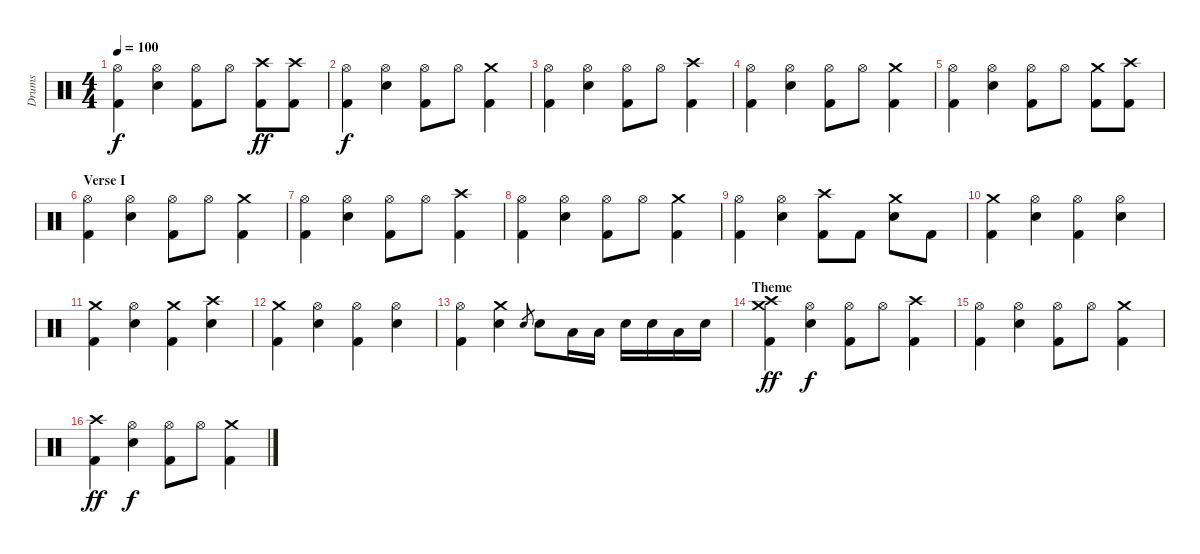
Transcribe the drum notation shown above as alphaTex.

\track ("Drums" "Drums") {instrument percussion}
\staff {score}
\articulation defaults
\ts (4 4)
\tempo 100
\clef neutral
\ks c
("Hi-Hat (open)" "Kick (hit) 2").4{dy f} ("Hi-Hat (open)" "Snare (hit) 2").4 ("Hi-Hat (open)" "Kick (hit) 2").8 "Hi-Hat (open)".8 ("Crash high (hit)" "Kick (hit) 2").8{dy ff} ("Crash high (hit)" "Kick (hit) 2").8 |
("Hi-Hat (open)" "Kick (hit) 2").4{dy f} ("Hi-Hat (open)" "Snare (hit) 2").4 ("Hi-Hat (open)" "Kick (hit) 2").8 "Hi-Hat (open)".8 ("Crash medium (hit)" "Kick (hit) 2").4 |
("Hi-Hat (open)" "Kick (hit) 2").4 ("Hi-Hat (open)" "Snare (hit) 2").4 ("Hi-Hat (open)" "Kick (hit) 2").8 "Hi-Hat (open)".8 ("Crash high (hit)" "Kick (hit) 2").4 |
("Hi-Hat (open)" "Kick (hit) 2").4 ("Hi-Hat (open)" "Snare (hit) 2").4 ("Hi-Hat (open)" "Kick (hit) 2").8 "Hi-Hat (open)".8 ("Crash medium (hit)" "Kick (hit) 2").4 |
("Hi-Hat (open)" "Kick (hit) 2").4 ("Hi-Hat (open)" "Snare (hit) 2").4 ("Hi-Hat (open)" "Kick (hit) 2").8 "Hi-Hat (open)".8 ("Crash medium (hit)" "Kick (hit) 2").8 ("Crash high (hit)" "Kick (hit) 2").8 |
\section ("" "Verse I")
("Hi-Hat (open)" "Kick (hit) 2").4 ("Hi-Hat (open)" "Snare (hit) 2").4 ("Hi-Hat (open)" "Kick (hit) 2").8 "Hi-Hat (open)".8 ("Crash medium (hit)" "Kick (hit) 2").4 |
("Hi-Hat (open)" "Kick (hit) 2").4 ("Hi-Hat (open)" "Snare (hit) 2").4 ("Hi-Hat (open)" "Kick (hit) 2").8 "Hi-Hat (open)".8 ("Crash high (hit)" "Kick (hit) 2").4 |
("Hi-Hat (open)" "Kick (hit) 2").4 ("Hi-Hat (open)" "Snare (hit) 2").4 ("Hi-Hat (open)" "Kick (hit) 2").8 "Hi-Hat (open)".8 ("Crash medium (hit)" "Kick (hit) 2").4 |
("Hi-Hat (open)" "Kick (hit) 2").4 ("Hi-Hat (open)" "Snare (hit) 2").4 ("Crash high (hit)" "Kick (hit) 2").8 "Kick (hit) 2".8 ("Crash medium (hit)" "Snare (hit) 2").8 "Kick (hit) 2".8 |
("Crash medium (hit)" "Kick (hit) 2").4 ("Hi-Hat (open)" "Snare (hit) 2").4 ("Hi-Hat (open)" "Kick (hit) 2").4 ("Hi-Hat (open)" "Snare (hit) 2").4 |
("Crash medium (hit)" "Kick (hit) 2").4 ("Hi-Hat (open)" "Snare (hit) 2").4 ("Crash medium (hit)" "Kick (hit) 2").4 ("Crash high (hit)" "Snare (hit) 2").4 |
("Crash medium (hit)" "Kick (hit) 2").4 ("Hi-Hat (open)" "Snare (hit) 2").4 ("Hi-Hat (open)" "Kick (hit) 2").4 ("Hi-Hat (open)" "Snare (hit) 2").4 |
("Hi-Hat (open)" "Kick (hit) 2").4 ("Crash medium (hit)" "Snare (hit) 2").4 "Electric Snare (hit)".8{gr} "Electric Snare (hit)".8 "Low Floor Tom (hit)".16 "Low Floor Tom (hit)".16 "Electric Snare (hit)".16 "Electric Snare (hit)".16 "Low Floor Tom (hit)".16 "Electric Snare (hit)".16 |
\section ("" "Theme")
("Crash high (hit)" "Crash medium (hit)" "Kick (hit) 2").4{dy ff} ("Hi-Hat (open)" "Snare (hit) 2").4{dy f} ("Hi-Hat (open)" "Kick (hit) 2").8 "Hi-Hat (open)".8 ("Crash high (hit)" "Kick (hit) 2").4 |
("Hi-Hat (open)" "Kick (hit) 2").4 ("Hi-Hat (open)" "Snare (hit) 2").4 ("Hi-Hat (open)" "Kick (hit) 2").8 "Hi-Hat (open)".8 ("Crash medium (hit)" "Kick (hit) 2").4 |
("Crash high (hit)" "Kick (hit) 2").4{dy ff} ("Hi-Hat (open)" "Snare (hit) 2").4{dy f} ("Hi-Hat (open)" "Kick (hit) 2").8 "Hi-Hat (open)".8 ("Crash medium (hit)" "Kick (hit) 2").4
